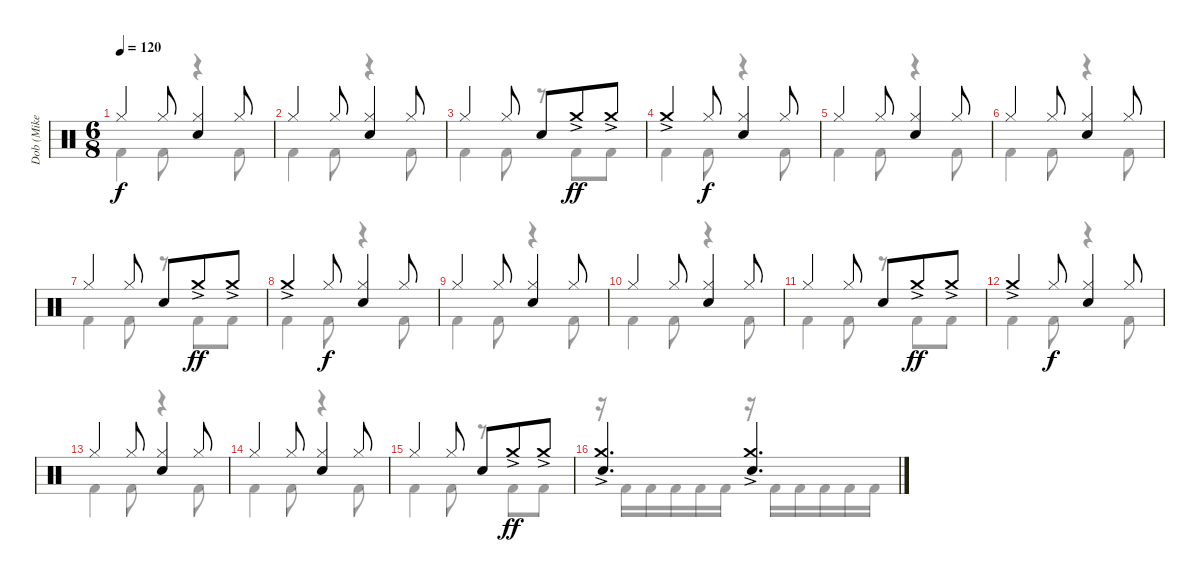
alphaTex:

\track ("Dob (Mike Terrana)" "Dob (Mike ") {instrument percussion}
\staff {score}
\articulation defaults
\voice
\ts (6 8)
\tempo 120
\clef neutral
\ks c "Hi-Hat (closed)".4{dy f} "Hi-Hat (closed)".8
("Hi-Hat (closed)" "Electric Snare (hit)").4 "Hi-Hat (closed)".8 |
"Hi-Hat (closed)".4 "Hi-Hat (closed)".8 ("Hi-Hat (closed)" "Electric Snare (hit)").4 "Hi-Hat (closed)".8 |
"Hi-Hat (closed)".4 "Hi-Hat (closed)".8 "Electric Snare (hit)".8 "Crash medium (hit)"{ac}.8{dy ff} "Crash medium (hit)"{ac}.8 |
"Crash medium (hit)"{ac}.4 "Hi-Hat (closed)".8{dy f} ("Hi-Hat (closed)" "Electric Snare (hit)").4 "Hi-Hat (closed)".8 |
"Hi-Hat (closed)".4 "Hi-Hat (closed)".8 ("Hi-Hat (closed)" "Electric Snare (hit)").4 "Hi-Hat (closed)".8 |
"Hi-Hat (closed)".4 "Hi-Hat (closed)".8 ("Hi-Hat (closed)" "Electric Snare (hit)").4 "Hi-Hat (closed)".8 |
"Hi-Hat (closed)".4 "Hi-Hat (closed)".8 "Electric Snare (hit)".8 "Crash medium (hit)"{ac}.8{dy ff} "Crash medium (hit)"{ac}.8 |
"Crash medium (hit)"{ac}.4 "Hi-Hat (closed)".8{dy f} ("Hi-Hat (closed)" "Electric Snare (hit)").4 "Hi-Hat (closed)".8 |
"Hi-Hat (closed)".4 "Hi-Hat (closed)".8 ("Hi-Hat (closed)" "Electric Snare (hit)").4 "Hi-Hat (closed)".8 |
"Hi-Hat (closed)".4 "Hi-Hat (closed)".8 ("Hi-Hat (closed)" "Electric Snare (hit)").4 "Hi-Hat (closed)".8 |
"Hi-Hat (closed)".4 "Hi-Hat (closed)".8 "Electric Snare (hit)".8 "Crash medium (hit)"{ac}.8{dy ff} "Crash medium (hit)"{ac}.8 |
"Crash medium (hit)"{ac}.4 "Hi-Hat (closed)".8{dy f} ("Hi-Hat (closed)" "Electric Snare (hit)").4 "Hi-Hat (closed)".8 |
"Hi-Hat (closed)".4 "Hi-Hat (closed)".8 ("Hi-Hat (closed)" "Electric Snare (hit)").4 "Hi-Hat (closed)".8 |
"Hi-Hat (closed)".4 "Hi-Hat (closed)".8 ("Hi-Hat (closed)" "Electric Snare (hit)").4 "Hi-Hat (closed)".8 |
"Hi-Hat (closed)".4 "Hi-Hat (closed)".8 "Electric Snare (hit)".8 "Crash medium (hit)"{ac}.8{dy ff} "Crash medium (hit)"{ac}.8 |
("Crash medium (hit)"{ac} "Electric Snare (hit)").4{d} ("Crash medium (hit)"{ac} "Electric Snare (hit)").4{d}
\voice
\clef neutral
\ottava regular
\simile none
\ks c "Kick (hit) 2".4{dy f} "Kick (hit) 2".8
r.4 "Kick (hit) 2".8 |
"Kick (hit) 2".4 "Kick (hit) 2".8 r.4 "Kick (hit) 2".8 |
"Kick (hit) 2".4 "Kick (hit) 2".8 r.8 "Kick (hit) 2".8 "Kick (hit) 2".8 |
"Kick (hit) 2".4 "Kick (hit) 2".8 r.4 "Kick (hit) 2".8 |
"Kick (hit) 2".4 "Kick (hit) 2".8 r.4 "Kick (hit) 2".8 |
"Kick (hit) 2".4 "Kick (hit) 2".8 r.4 "Kick (hit) 2".8 |
"Kick (hit) 2".4 "Kick (hit) 2".8 r.8 "Kick (hit) 2".8 "Kick (hit) 2".8 |
"Kick (hit) 2".4 "Kick (hit) 2".8 r.4 "Kick (hit) 2".8 |
"Kick (hit) 2".4 "Kick (hit) 2".8 r.4 "Kick (hit) 2".8 |
"Kick (hit) 2".4 "Kick (hit) 2".8 r.4 "Kick (hit) 2".8 |
"Kick (hit) 2".4 "Kick (hit) 2".8 r.8 "Kick (hit) 2".8 "Kick (hit) 2".8 |
"Kick (hit) 2".4 "Kick (hit) 2".8 r.4 "Kick (hit) 2".8 |
"Kick (hit) 2".4 "Kick (hit) 2".8 r.4 "Kick (hit) 2".8 |
"Kick (hit) 2".4 "Kick (hit) 2".8 r.4 "Kick (hit) 2".8 |
"Kick (hit) 2".4 "Kick (hit) 2".8 r.8 "Kick (hit) 2".8 "Kick (hit) 2".8 |
r.16 "Kick (hit) 2".16 "Kick (hit) 2".16 "Kick (hit) 2".16 "Kick (hit) 2".16 "Kick (hit) 2".16 r.16 "Kick (hit) 2".16 "Kick (hit) 2".16 "Kick (hit) 2".16 "Kick (hit) 2".16 "Kick (hit) 2".16
